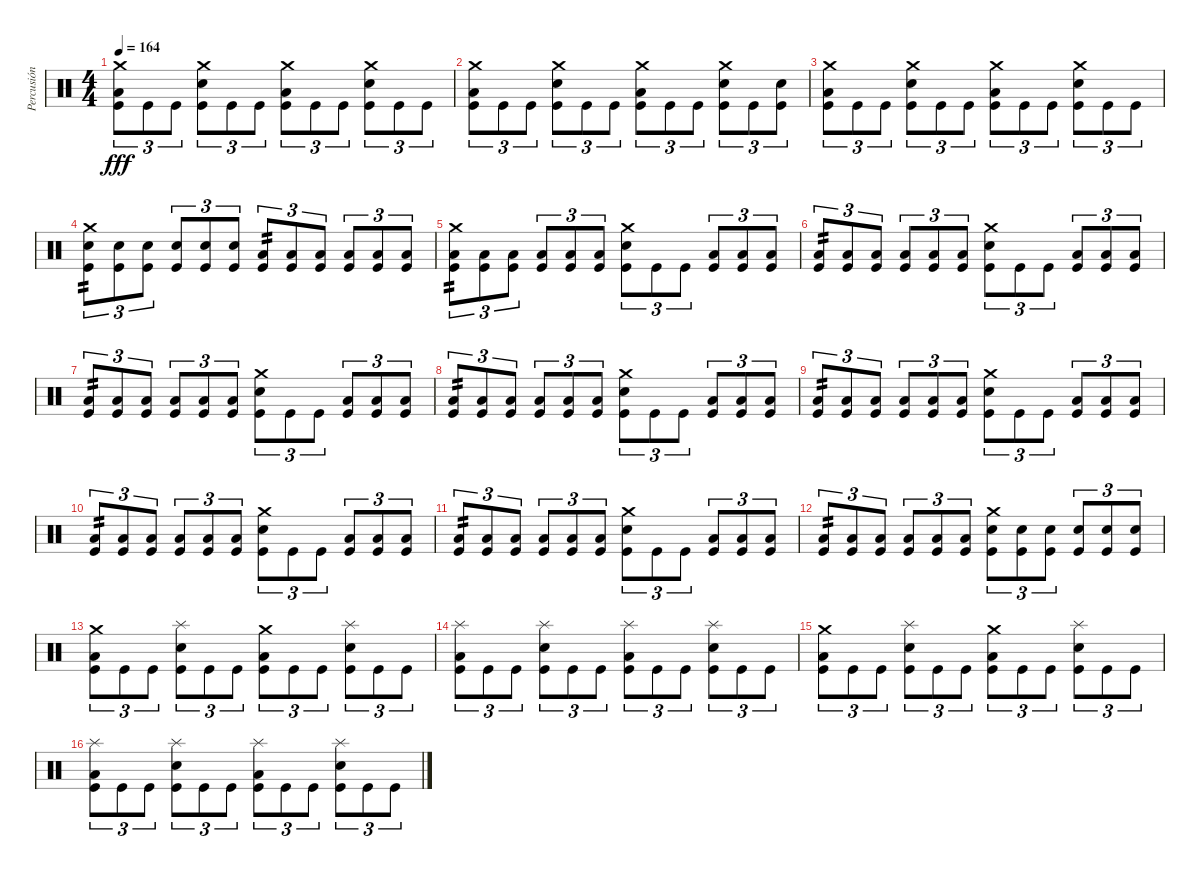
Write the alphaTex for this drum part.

\track ("Percusión" "Percusión") {instrument percussion}
\staff {score}
\articulation defaults
\ts (4 4)
\tempo 164
\clef neutral
\ks c
("Crash medium (hit)" "Low Floor Tom (hit)" "Kick (hit)").8{tu (3 2) dy fff} "Kick (hit)".8{tu (3 2)} "Kick (hit)".8{tu (3 2)} ("Crash medium (hit)" "Snare (hit) 2" "Kick (hit)").8{tu (3 2)} "Kick (hit)".8{tu (3 2)} "Kick (hit)".8{tu (3 2)} ("Crash medium (hit)" "Low Floor Tom (hit)" "Kick (hit)").8{tu (3 2)} "Kick (hit)".8{tu (3 2)} "Kick (hit)".8{tu (3 2)} ("Crash medium (hit)" "Snare (hit) 2" "Kick (hit)").8{tu (3 2)} "Kick (hit)".8{tu (3 2)} "Kick (hit)".8{tu (3 2)} |
("Crash medium (hit)" "Low Floor Tom (hit)" "Kick (hit)").8{tu (3 2)} "Kick (hit)".8{tu (3 2)} "Kick (hit)".8{tu (3 2)} ("Crash medium (hit)" "Snare (hit) 2" "Kick (hit)").8{tu (3 2)} "Kick (hit)".8{tu (3 2)} "Kick (hit)".8{tu (3 2)} ("Crash medium (hit)" "Low Floor Tom (hit)" "Kick (hit)").8{tu (3 2)} "Kick (hit)".8{tu (3 2)} "Kick (hit)".8{tu (3 2)} ("Crash medium (hit)" "Snare (hit) 2" "Kick (hit)").8{tu (3 2)} "Kick (hit)".8{tu (3 2)} ("Snare (hit) 2" "Kick (hit)").8{tu (3 2)} |
("Crash medium (hit)" "Low Floor Tom (hit)" "Kick (hit)").8{tu (3 2)} "Kick (hit)".8{tu (3 2)} "Kick (hit)".8{tu (3 2)} ("Crash medium (hit)" "Snare (hit) 2" "Kick (hit)").8{tu (3 2)} "Kick (hit)".8{tu (3 2)} "Kick (hit)".8{tu (3 2)} ("Crash medium (hit)" "Low Floor Tom (hit)" "Kick (hit)").8{tu (3 2)} "Kick (hit)".8{tu (3 2)} "Kick (hit)".8{tu (3 2)} ("Crash medium (hit)" "Snare (hit) 2" "Kick (hit)").8{tu (3 2)} "Kick (hit)".8{tu (3 2)} "Kick (hit)".8{tu (3 2)} |
("Crash medium (hit)" "Snare (hit) 2" "Kick (hit)").8{tu (3 2) tp 2} ("Snare (hit) 2" "Kick (hit)").8{tu (3 2)} ("Snare (hit) 2" "Kick (hit)").8{tu (3 2)} ("Snare (hit) 2" "Kick (hit)").8{tu (3 2)} ("Snare (hit) 2" "Kick (hit)").8{tu (3 2)} ("Snare (hit) 2" "Kick (hit)").8{tu (3 2)} ("Low Floor Tom (hit)" "Kick (hit)").8{tu (3 2) tp 2} ("Low Floor Tom (hit)" "Kick (hit)").8{tu (3 2)} ("Low Floor Tom (hit)" "Kick (hit)").8{tu (3 2)} ("Low Floor Tom (hit)" "Kick (hit)").8{tu (3 2)} ("Low Floor Tom (hit)" "Kick (hit)").8{tu (3 2)} ("Low Floor Tom (hit)" "Kick (hit)").8{tu (3 2)} |
("Crash medium (hit)" "Low Floor Tom (hit)" "Kick (hit)").8{tu (3 2) tp 2} ("Low Floor Tom (hit)" "Kick (hit)").8{tu (3 2)} ("Low Floor Tom (hit)" "Kick (hit)").8{tu (3 2)} ("Low Floor Tom (hit)" "Kick (hit)").8{tu (3 2)} ("Low Floor Tom (hit)" "Kick (hit)").8{tu (3 2)} ("Low Floor Tom (hit)" "Kick (hit)").8{tu (3 2)} ("Crash medium (hit)" "Snare (hit) 2" "Kick (hit)").8{tu (3 2)} "Kick (hit)".8{tu (3 2)} "Kick (hit)".8{tu (3 2)} ("Low Floor Tom (hit)" "Kick (hit)").8{tu (3 2)} ("Low Floor Tom (hit)" "Kick (hit)").8{tu (3 2)} ("Low Floor Tom (hit)" "Kick (hit)").8{tu (3 2)} |
("Low Floor Tom (hit)" "Kick (hit)").8{tu (3 2) tp 2} ("Low Floor Tom (hit)" "Kick (hit)").8{tu (3 2)} ("Low Floor Tom (hit)" "Kick (hit)").8{tu (3 2)} ("Low Floor Tom (hit)" "Kick (hit)").8{tu (3 2)} ("Low Floor Tom (hit)" "Kick (hit)").8{tu (3 2)} ("Low Floor Tom (hit)" "Kick (hit)").8{tu (3 2)} ("Crash medium (hit)" "Snare (hit) 2" "Kick (hit)").8{tu (3 2)} "Kick (hit)".8{tu (3 2)} "Kick (hit)".8{tu (3 2)} ("Low Floor Tom (hit)" "Kick (hit)").8{tu (3 2)} ("Low Floor Tom (hit)" "Kick (hit)").8{tu (3 2)} ("Low Floor Tom (hit)" "Kick (hit)").8{tu (3 2)} |
("Low Floor Tom (hit)" "Kick (hit)").8{tu (3 2) tp 2} ("Low Floor Tom (hit)" "Kick (hit)").8{tu (3 2)} ("Low Floor Tom (hit)" "Kick (hit)").8{tu (3 2)} ("Low Floor Tom (hit)" "Kick (hit)").8{tu (3 2)} ("Low Floor Tom (hit)" "Kick (hit)").8{tu (3 2)} ("Low Floor Tom (hit)" "Kick (hit)").8{tu (3 2)} ("Crash medium (hit)" "Snare (hit) 2" "Kick (hit)").8{tu (3 2)} "Kick (hit)".8{tu (3 2)} "Kick (hit)".8{tu (3 2)} ("Low Floor Tom (hit)" "Kick (hit)").8{tu (3 2)} ("Low Floor Tom (hit)" "Kick (hit)").8{tu (3 2)} ("Low Floor Tom (hit)" "Kick (hit)").8{tu (3 2)} |
("Low Floor Tom (hit)" "Kick (hit)").8{tu (3 2) tp 2} ("Low Floor Tom (hit)" "Kick (hit)").8{tu (3 2)} ("Low Floor Tom (hit)" "Kick (hit)").8{tu (3 2)} ("Low Floor Tom (hit)" "Kick (hit)").8{tu (3 2)} ("Low Floor Tom (hit)" "Kick (hit)").8{tu (3 2)} ("Low Floor Tom (hit)" "Kick (hit)").8{tu (3 2)} ("Crash medium (hit)" "Snare (hit) 2" "Kick (hit)").8{tu (3 2)} "Kick (hit)".8{tu (3 2)} "Kick (hit)".8{tu (3 2)} ("Low Floor Tom (hit)" "Kick (hit)").8{tu (3 2)} ("Low Floor Tom (hit)" "Kick (hit)").8{tu (3 2)} ("Low Floor Tom (hit)" "Kick (hit)").8{tu (3 2)} |
("Low Floor Tom (hit)" "Kick (hit)").8{tu (3 2) tp 2} ("Low Floor Tom (hit)" "Kick (hit)").8{tu (3 2)} ("Low Floor Tom (hit)" "Kick (hit)").8{tu (3 2)} ("Low Floor Tom (hit)" "Kick (hit)").8{tu (3 2)} ("Low Floor Tom (hit)" "Kick (hit)").8{tu (3 2)} ("Low Floor Tom (hit)" "Kick (hit)").8{tu (3 2)} ("Crash medium (hit)" "Snare (hit) 2" "Kick (hit)").8{tu (3 2)} "Kick (hit)".8{tu (3 2)} "Kick (hit)".8{tu (3 2)} ("Low Floor Tom (hit)" "Kick (hit)").8{tu (3 2)} ("Low Floor Tom (hit)" "Kick (hit)").8{tu (3 2)} ("Low Floor Tom (hit)" "Kick (hit)").8{tu (3 2)} |
("Low Floor Tom (hit)" "Kick (hit)").8{tu (3 2) tp 2} ("Low Floor Tom (hit)" "Kick (hit)").8{tu (3 2)} ("Low Floor Tom (hit)" "Kick (hit)").8{tu (3 2)} ("Low Floor Tom (hit)" "Kick (hit)").8{tu (3 2)} ("Low Floor Tom (hit)" "Kick (hit)").8{tu (3 2)} ("Low Floor Tom (hit)" "Kick (hit)").8{tu (3 2)} ("Crash medium (hit)" "Snare (hit) 2" "Kick (hit)").8{tu (3 2)} "Kick (hit)".8{tu (3 2)} "Kick (hit)".8{tu (3 2)} ("Low Floor Tom (hit)" "Kick (hit)").8{tu (3 2)} ("Low Floor Tom (hit)" "Kick (hit)").8{tu (3 2)} ("Low Floor Tom (hit)" "Kick (hit)").8{tu (3 2)} |
("Low Floor Tom (hit)" "Kick (hit)").8{tu (3 2) tp 2} ("Low Floor Tom (hit)" "Kick (hit)").8{tu (3 2)} ("Low Floor Tom (hit)" "Kick (hit)").8{tu (3 2)} ("Low Floor Tom (hit)" "Kick (hit)").8{tu (3 2)} ("Low Floor Tom (hit)" "Kick (hit)").8{tu (3 2)} ("Low Floor Tom (hit)" "Kick (hit)").8{tu (3 2)} ("Crash medium (hit)" "Snare (hit) 2" "Kick (hit)").8{tu (3 2)} "Kick (hit)".8{tu (3 2)} "Kick (hit)".8{tu (3 2)} ("Low Floor Tom (hit)" "Kick (hit)").8{tu (3 2)} ("Low Floor Tom (hit)" "Kick (hit)").8{tu (3 2)} ("Low Floor Tom (hit)" "Kick (hit)").8{tu (3 2)} |
("Low Floor Tom (hit)" "Kick (hit)").8{tu (3 2) tp 2} ("Low Floor Tom (hit)" "Kick (hit)").8{tu (3 2)} ("Low Floor Tom (hit)" "Kick (hit)").8{tu (3 2)} ("Low Floor Tom (hit)" "Kick (hit)").8{tu (3 2)} ("Low Floor Tom (hit)" "Kick (hit)").8{tu (3 2)} ("Low Floor Tom (hit)" "Kick (hit)").8{tu (3 2)} ("Crash medium (hit)" "Snare (hit) 2" "Kick (hit)").8{tu (3 2)} ("Snare (hit) 2" "Kick (hit)").8{tu (3 2)} ("Snare (hit) 2" "Kick (hit)").8{tu (3 2)} ("Snare (hit) 2" "Kick (hit)").8{tu (3 2)} ("Snare (hit) 2" "Kick (hit)").8{tu (3 2)} ("Snare (hit) 2" "Kick (hit)").8{tu (3 2)} |
("Crash medium (hit)" "Low Floor Tom (hit)" "Kick (hit)").8{tu (3 2)} "Kick (hit)".8{tu (3 2)} "Kick (hit)".8{tu (3 2)} ("Splash (hit)" "Snare (hit) 2" "Kick (hit)").8{tu (3 2)} "Kick (hit)".8{tu (3 2)} "Kick (hit)".8{tu (3 2)} ("Crash medium (hit)" "Low Floor Tom (hit)" "Kick (hit)").8{tu (3 2)} "Kick (hit)".8{tu (3 2)} "Kick (hit)".8{tu (3 2)} ("Splash (hit)" "Snare (hit) 2" "Kick (hit)").8{tu (3 2)} "Kick (hit)".8{tu (3 2)} "Kick (hit)".8{tu (3 2)} |
("Splash (hit)" "Low Floor Tom (hit)" "Kick (hit)").8{tu (3 2)} "Kick (hit)".8{tu (3 2)} "Kick (hit)".8{tu (3 2)} ("Splash (hit)" "Snare (hit) 2" "Kick (hit)").8{tu (3 2)} "Kick (hit)".8{tu (3 2)} "Kick (hit)".8{tu (3 2)} ("Splash (hit)" "Low Floor Tom (hit)" "Kick (hit)").8{tu (3 2)} "Kick (hit)".8{tu (3 2)} "Kick (hit)".8{tu (3 2)} ("Splash (hit)" "Snare (hit) 2" "Kick (hit)").8{tu (3 2)} "Kick (hit)".8{tu (3 2)} "Kick (hit)".8{tu (3 2)} |
("Crash medium (hit)" "Low Floor Tom (hit)" "Kick (hit)").8{tu (3 2)} "Kick (hit)".8{tu (3 2)} "Kick (hit)".8{tu (3 2)} ("Splash (hit)" "Snare (hit) 2" "Kick (hit)").8{tu (3 2)} "Kick (hit)".8{tu (3 2)} "Kick (hit)".8{tu (3 2)} ("Crash medium (hit)" "Low Floor Tom (hit)" "Kick (hit)").8{tu (3 2)} "Kick (hit)".8{tu (3 2)} "Kick (hit)".8{tu (3 2)} ("Splash (hit)" "Snare (hit) 2" "Kick (hit)").8{tu (3 2)} "Kick (hit)".8{tu (3 2)} "Kick (hit)".8{tu (3 2)} |
("Splash (hit)" "Low Floor Tom (hit)" "Kick (hit)").8{tu (3 2)} "Kick (hit)".8{tu (3 2)} "Kick (hit)".8{tu (3 2)} ("Splash (hit)" "Snare (hit) 2" "Kick (hit)").8{tu (3 2)} "Kick (hit)".8{tu (3 2)} "Kick (hit)".8{tu (3 2)} ("Splash (hit)" "Low Floor Tom (hit)" "Kick (hit)").8{tu (3 2)} "Kick (hit)".8{tu (3 2)} "Kick (hit)".8{tu (3 2)} ("Splash (hit)" "Snare (hit) 2" "Kick (hit)").8{tu (3 2)} "Kick (hit)".8{tu (3 2)} "Kick (hit)".8{tu (3 2)}
